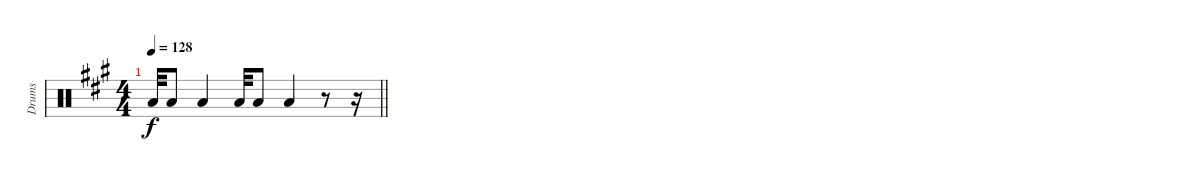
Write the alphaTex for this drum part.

\track ("Drums" "Drums") {instrument percussion}
\staff
\articulation defaults
\ts (4 4)
\tempo 128
\clef neutral
\barLineRight lightlight
\ks a "Low Tom (hit)".32{dy f} "Low Tom (hit)".8 "Low Tom (hit)".4 "Low Floor Tom (hit)".32 "Low Floor Tom (hit)".8 "Low Floor Tom (hit)".4
r.8 r.16
